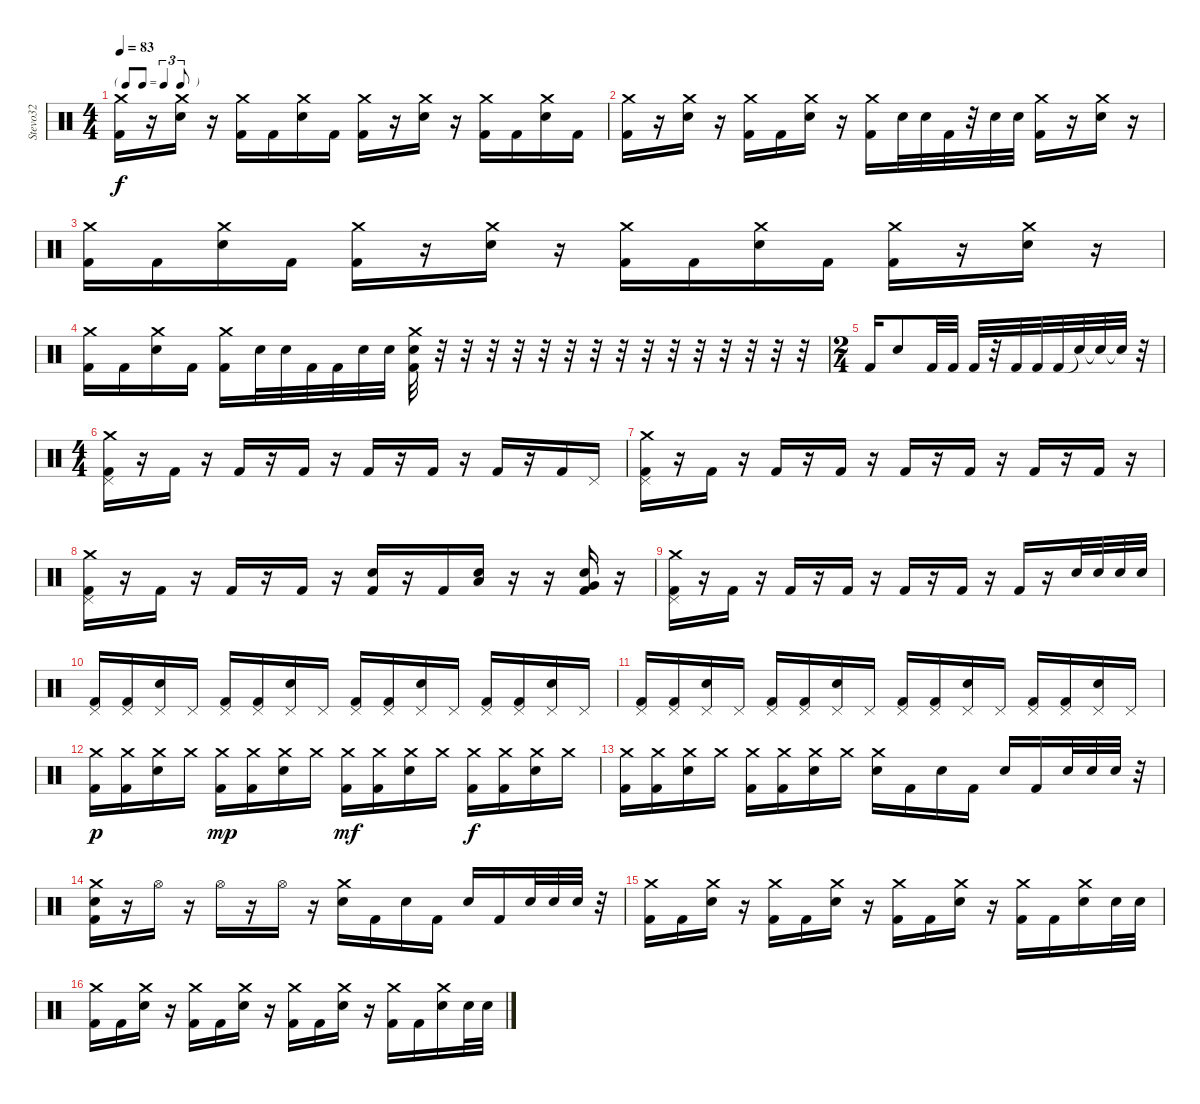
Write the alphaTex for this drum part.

\track ("Stevo32" "Stevo32") {instrument percussion}
\staff {score}
\articulation defaults
\ts (4 4)
\tf triplet8th
\tempo 83
\clef neutral
\ks c
("Crash medium (hit)" "Kick (hit) 2").16{dy f} r.16 ("Crash medium (hit)" "Electric Snare (hit)").16 r.16 ("Crash medium (hit)" "Kick (hit) 2").16 "Kick (hit) 2".16 ("Crash medium (hit)" "Electric Snare (hit)").16 "Kick (hit) 2".16 ("Crash medium (hit)" "Kick (hit) 2").16 r.16 ("Crash medium (hit)" "Electric Snare (hit)").16 r.16 ("Crash medium (hit)" "Kick (hit) 2").16 "Kick (hit) 2".16 ("Crash medium (hit)" "Electric Snare (hit)").16 "Kick (hit) 2".16 |
("Crash medium (hit)" "Kick (hit) 2").16 r.16 ("Crash medium (hit)" "Electric Snare (hit)").16 r.16 ("Crash medium (hit)" "Kick (hit) 2").16 "Kick (hit) 2".16 ("Crash medium (hit)" "Electric Snare (hit)").16 r.16 ("Crash medium (hit)" "Kick (hit) 2").16 "Electric Snare (hit)".32 "Electric Snare (hit)".32 "Kick (hit) 2".32 r.32 "Electric Snare (hit)".32 "Electric Snare (hit)".32 ("Crash medium (hit)" "Kick (hit) 2").16 r.16 ("Crash medium (hit)" "Electric Snare (hit)").16 r.16 |
("Crash medium (hit)" "Kick (hit) 2").16 "Kick (hit) 2".16 ("Crash medium (hit)" "Electric Snare (hit)").16 "Kick (hit) 2".16 ("Crash medium (hit)" "Kick (hit) 2").16 r.16 ("Crash medium (hit)" "Electric Snare (hit)").16 r.16 ("Crash medium (hit)" "Kick (hit) 2").16 "Kick (hit) 2".16 ("Crash medium (hit)" "Electric Snare (hit)").16 "Kick (hit) 2".16 ("Crash medium (hit)" "Kick (hit) 2").16 r.16 ("Crash medium (hit)" "Electric Snare (hit)").16 r.16 |
("Crash medium (hit)" "Kick (hit) 2").16 "Kick (hit) 2".16 ("Crash medium (hit)" "Electric Snare (hit)").16 "Kick (hit) 2".16 ("Crash medium (hit)" "Kick (hit) 2").16 "Electric Snare (hit)".32 "Electric Snare (hit)".32 "Kick (hit) 2".32 "Kick (hit) 2".32 "Electric Snare (hit)".32 "Electric Snare (hit)".32 ("Crash medium (hit)" "Electric Snare (hit)" "Kick (hit) 2").32 r.32 r.32 r.32 r.32 r.32 r.32 r.32 r.32 r.32 r.32 r.32 r.32 r.32 r.32 r.32 |
\ts (2 4)
"Kick (hit) 2".16 "Electric Snare (hit)".8 "Kick (hit) 2".32 "Kick (hit) 2".32 "Kick (hit) 2".32 r.32 "Kick (hit) 2".32 "Kick (hit) 2".32 "Kick (hit) 2".32 "Snare (hit)"{t}.32 "Snare (hit)"{t}.32 "Electric Snare (hit)"{t}.32 r.32 |
\ts (4 4)
("Crash medium (hit)" "Pedal Hi-Hat (hit)" "Kick (hit) 2").16 r.16 "Kick (hit) 2".16 r.16 "Kick (hit) 2".16 r.16 "Kick (hit) 2".16 r.16 "Kick (hit) 2".16 r.16 "Kick (hit) 2".16 r.16 "Kick (hit) 2".16 r.16 "Kick (hit) 2".16 "Pedal Hi-Hat (hit)".16 |
("Crash medium (hit)" "Pedal Hi-Hat (hit)" "Kick (hit) 2").16 r.16 "Kick (hit) 2".16 r.16 "Kick (hit) 2".16 r.16 "Kick (hit) 2".16 r.16 "Kick (hit) 2".16 r.16 "Kick (hit) 2".16 r.16 "Kick (hit) 2".16 r.16 "Kick (hit) 2".16 r.16 |
("Crash medium (hit)" "Pedal Hi-Hat (hit)" "Kick (hit) 2").16 r.16 "Kick (hit) 2".16 r.16 "Kick (hit) 2".16 r.16 "Kick (hit) 2".16 r.16 ("Electric Snare (hit)" "Kick (hit) 2").16 r.16 "Kick (hit) 2".16 ("Low Floor Tom (hit)" "Electric Snare (hit)").16 r.16 r.16 ("Very Low Tom (hit)" "Electric Snare (hit)" "Kick (hit) 2").16 r.16 |
("Crash medium (hit)" "Pedal Hi-Hat (hit)" "Kick (hit) 2").16 r.16 "Kick (hit) 2".16 r.16 "Kick (hit) 2".16 r.16 "Kick (hit) 2".16 r.16 "Kick (hit) 2".16 r.16 "Kick (hit) 2".16 r.16 "Kick (hit) 2".16 r.16 "Electric Snare (hit)".32 "Electric Snare (hit)".32 "Electric Snare (hit)".32 "Electric Snare (hit)".32 |
("Pedal Hi-Hat (hit)" "Kick (hit) 2").16 ("Pedal Hi-Hat (hit)" "Kick (hit) 2").16 ("Pedal Hi-Hat (hit)" "Electric Snare (hit)").16 "Pedal Hi-Hat (hit)".16 ("Pedal Hi-Hat (hit)" "Kick (hit) 2").16 ("Pedal Hi-Hat (hit)" "Kick (hit) 2").16 ("Pedal Hi-Hat (hit)" "Electric Snare (hit)").16 "Pedal Hi-Hat (hit)".16 ("Pedal Hi-Hat (hit)" "Kick (hit) 2").16 ("Pedal Hi-Hat (hit)" "Kick (hit) 2").16 ("Pedal Hi-Hat (hit)" "Electric Snare (hit)").16 "Pedal Hi-Hat (hit)".16 ("Pedal Hi-Hat (hit)" "Kick (hit) 2").16 ("Pedal Hi-Hat (hit)" "Kick (hit) 2").16 ("Pedal Hi-Hat (hit)" "Electric Snare (hit)").16 "Pedal Hi-Hat (hit)".16 |
("Pedal Hi-Hat (hit)" "Kick (hit) 2").16 ("Pedal Hi-Hat (hit)" "Kick (hit) 2").16 ("Pedal Hi-Hat (hit)" "Electric Snare (hit)").16 "Pedal Hi-Hat (hit)".16 ("Pedal Hi-Hat (hit)" "Kick (hit) 2").16 ("Pedal Hi-Hat (hit)" "Kick (hit) 2").16 ("Pedal Hi-Hat (hit)" "Electric Snare (hit)").16 "Pedal Hi-Hat (hit)".16 ("Pedal Hi-Hat (hit)" "Kick (hit) 2").16 ("Pedal Hi-Hat (hit)" "Kick (hit) 2").16 ("Pedal Hi-Hat (hit)" "Electric Snare (hit)").16 "Pedal Hi-Hat (hit)".16 ("Pedal Hi-Hat (hit)" "Kick (hit) 2").16 ("Pedal Hi-Hat (hit)" "Kick (hit) 2").16 ("Pedal Hi-Hat (hit)" "Electric Snare (hit)").16 "Pedal Hi-Hat (hit)".16 |
("Crash medium (hit)" "Kick (hit) 2").16{dy p} ("Crash medium (hit)" "Kick (hit) 2").16 ("Crash medium (hit)" "Electric Snare (hit)").16 "Crash medium (hit)".16 ("Crash medium (hit)" "Kick (hit) 2").16{dy mp} ("Crash medium (hit)" "Kick (hit) 2").16 ("Crash medium (hit)" "Electric Snare (hit)").16 "Crash medium (hit)".16 ("Crash medium (hit)" "Kick (hit) 2").16{dy mf} ("Crash medium (hit)" "Kick (hit) 2").16 ("Crash medium (hit)" "Electric Snare (hit)").16 "Crash medium (hit)".16 ("Crash medium (hit)" "Kick (hit) 2").16{dy f} ("Crash medium (hit)" "Kick (hit) 2").16 ("Crash medium (hit)" "Electric Snare (hit)").16 "Crash medium (hit)".16 |
("Crash medium (hit)" "Kick (hit) 2").16 ("Crash medium (hit)" "Kick (hit) 2").16 ("Crash medium (hit)" "Electric Snare (hit)").16 "Crash medium (hit)".16 ("Crash medium (hit)" "Kick (hit) 2").16 ("Crash medium (hit)" "Kick (hit) 2").16 ("Crash medium (hit)" "Electric Snare (hit)").16 "Crash medium (hit)".16 ("Crash medium (hit)" "Electric Snare (hit)").16 "Kick (hit) 2".16 "Electric Snare (hit)".16 "Kick (hit) 2".16 "Electric Snare (hit)".16 "Kick (hit) 2".16 "Electric Snare (hit)".32 "Electric Snare (hit)".32 "Electric Snare (hit)".32 r.32 |
("Crash medium (hit)" "Electric Snare (hit)" "Kick (hit) 2").16 r.16 "Hi-Hat (open)".16 r.16 "Hi-Hat (open)".16 r.16 "Hi-Hat (open)".16 r.16 ("Crash medium (hit)" "Electric Snare (hit)").16 "Kick (hit) 2".16 "Electric Snare (hit)".16 "Kick (hit) 2".16 "Electric Snare (hit)".16 "Kick (hit) 2".16 "Electric Snare (hit)".32 "Electric Snare (hit)".32 "Electric Snare (hit)".32 r.32 |
("Crash medium (hit)" "Kick (hit) 2").16 "Kick (hit) 2".16 ("Crash medium (hit)" "Electric Snare (hit)").16 r.16 ("Crash medium (hit)" "Kick (hit) 2").16 "Kick (hit) 2".16 ("Crash medium (hit)" "Electric Snare (hit)").16 r.16 ("Crash medium (hit)" "Kick (hit) 2").16 "Kick (hit) 2".16 ("Crash medium (hit)" "Electric Snare (hit)").16 r.16 ("Crash medium (hit)" "Kick (hit) 2").16 "Kick (hit) 2".16 ("Crash medium (hit)" "Electric Snare (hit)").16 "Electric Snare (hit)".32 "Electric Snare (hit)".32 |
("Crash medium (hit)" "Kick (hit) 2").16 "Kick (hit) 2".16 ("Crash medium (hit)" "Electric Snare (hit)").16 r.16 ("Crash medium (hit)" "Kick (hit) 2").16 "Kick (hit) 2".16 ("Crash medium (hit)" "Electric Snare (hit)").16 r.16 ("Crash medium (hit)" "Kick (hit) 2").16 "Kick (hit) 2".16 ("Crash medium (hit)" "Electric Snare (hit)").16 r.16 ("Crash medium (hit)" "Kick (hit) 2").16 "Kick (hit) 2".16 ("Crash medium (hit)" "Electric Snare (hit)").16 "Electric Snare (hit)".32 "Electric Snare (hit)".32
